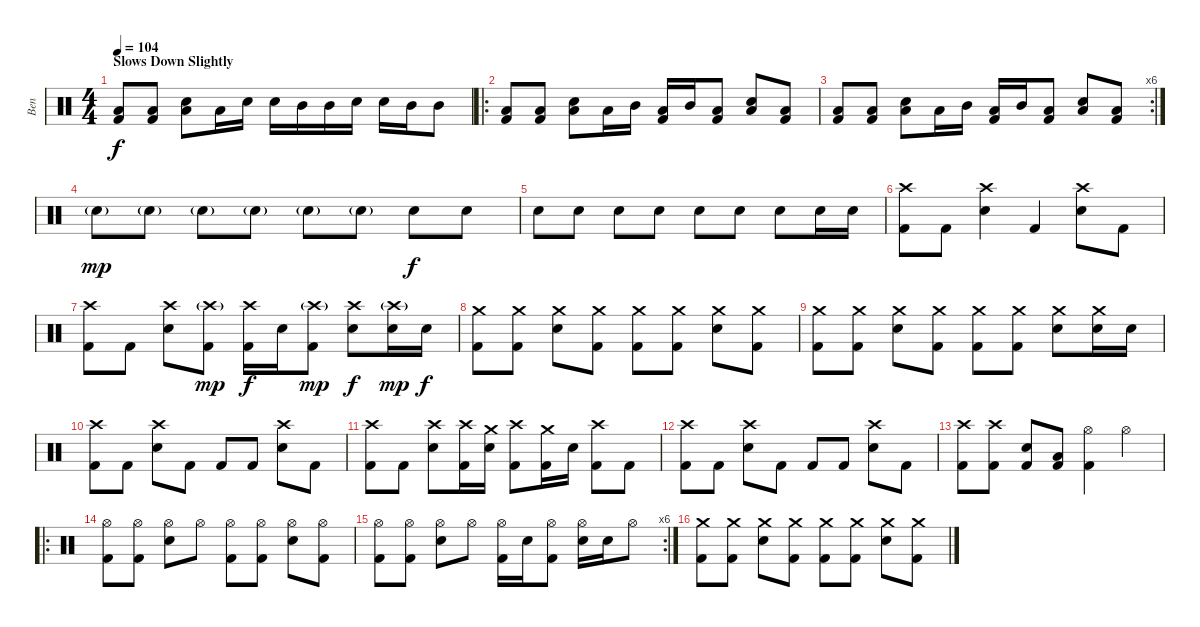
\track ("Ben" "Ben") {instrument percussion}
\staff {score}
\articulation defaults
\ts (4 4)
\section ("" "Slows Down Slightly")
\tempo 104
\clef neutral
\ks c
("Low Floor Tom (hit)" "Kick (hit) 2").8{dy f} ("Low Floor Tom (hit)" "Kick (hit) 2").8 ("Snare (hit) 2" "Low Floor Tom (hit)").8 "Low Floor Tom (hit)".16 "Snare (hit) 2".16 "Snare (hit) 2".16 "Mid Tom (hit)".16 "Mid Tom (hit)".16 "Snare (hit) 2".16 "Snare (hit) 2".16 "Mid Tom (hit)".16 "Mid Tom (hit)".8 |
\ro
("Low Floor Tom (hit)" "Kick (hit) 2").8 ("Low Floor Tom (hit)" "Kick (hit) 2").8 ("Snare (hit) 2" "Low Floor Tom (hit)").8 "Low Floor Tom (hit)".16 "Mid Tom (hit)".16 ("Low Floor Tom (hit)" "Kick (hit) 2").16 "Mid Tom (hit)".16 ("Low Floor Tom (hit)" "Kick (hit) 2").8 ("Snare (hit) 2" "Low Floor Tom (hit)").8 ("Low Floor Tom (hit)" "Kick (hit) 2").8 |
\rc 6
("Low Floor Tom (hit)" "Kick (hit) 2").8 ("Low Floor Tom (hit)" "Kick (hit) 2").8 ("Snare (hit) 2" "Low Floor Tom (hit)").8 "Low Floor Tom (hit)".16 "Mid Tom (hit)".16 ("Low Floor Tom (hit)" "Kick (hit) 2").16 "Mid Tom (hit)".16 ("Low Floor Tom (hit)" "Kick (hit) 2").8 ("Snare (hit) 2" "Low Floor Tom (hit)").8 ("Low Floor Tom (hit)" "Kick (hit) 2").8 |
"Snare (hit) 2"{g}.8{dy mp} "Snare (hit) 2"{g}.8 "Snare (hit) 2"{g}.8 "Snare (hit) 2"{g}.8 "Snare (hit) 2"{g}.8 "Snare (hit) 2"{g}.8 "Snare (hit) 2".8{dy f} "Snare (hit) 2".8 |
"Snare (hit) 2".8 "Snare (hit) 2".8 "Snare (hit) 2".8 "Snare (hit) 2".8 "Snare (hit) 2".8 "Snare (hit) 2".8 "Snare (hit) 2".8 "Snare (hit) 2".16 "Snare (hit) 2".16 |
("Crash high (hit)" "Kick (hit) 2").8 "Kick (hit) 2".8 ("Snare (hit) 2" "Crash high (hit)").4 "Kick (hit) 2".4 ("Snare (hit) 2" "Crash high (hit)").8 "Kick (hit) 2".8 |
("Crash high (hit)" "Kick (hit) 2").8 "Kick (hit) 2".8 ("Snare (hit) 2" "Crash high (hit)").8 ("Crash high (hit)"{g} "Kick (hit) 2").8{dy mp} ("Crash high (hit)" "Kick (hit) 2").16{dy f} "Snare (hit) 2".16 ("Crash high (hit)"{g} "Kick (hit) 2").8{dy mp} ("Snare (hit) 2" "Crash high (hit)").8{dy f} ("Snare (hit) 2" "Crash high (hit)"{g}).16{dy mp} "Snare (hit) 2".16{dy f} |
("Crash medium (hit)" "Kick (hit) 2").8 ("Crash medium (hit)" "Kick (hit) 2").8 ("Snare (hit) 2" "Crash medium (hit)").8 ("Crash medium (hit)" "Kick (hit) 2").8 ("Crash medium (hit)" "Kick (hit) 2").8 ("Crash medium (hit)" "Kick (hit) 2").8 ("Snare (hit) 2" "Crash medium (hit)").8 ("Crash medium (hit)" "Kick (hit) 2").8 |
("Crash medium (hit)" "Kick (hit) 2").8 ("Crash medium (hit)" "Kick (hit) 2").8 ("Snare (hit) 2" "Crash medium (hit)").8 ("Crash medium (hit)" "Kick (hit) 2").8 ("Crash medium (hit)" "Kick (hit) 2").8 ("Crash medium (hit)" "Kick (hit) 2").8 ("Snare (hit) 2" "Crash medium (hit)").8 ("Snare (hit) 2" "Crash medium (hit)").16 "Snare (hit) 2".16 |
("Crash high (hit)" "Kick (hit) 2").8 "Kick (hit) 2".8 ("Snare (hit) 2" "Crash high (hit)").8 "Kick (hit) 2".8 "Kick (hit) 2".8 "Kick (hit) 2".8 ("Snare (hit) 2" "Crash high (hit)").8 "Kick (hit) 2".8 |
("Crash high (hit)" "Kick (hit) 2").8 "Kick (hit) 2".8 ("Snare (hit) 2" "Crash high (hit)").8 ("Crash high (hit)" "Kick (hit) 2").16 ("Snare (hit) 2" "Crash medium (hit)").16 ("Crash high (hit)" "Kick (hit) 2").8 ("Crash medium (hit)" "Kick (hit) 2").16 "Snare (hit) 2".16 ("Crash high (hit)" "Kick (hit) 2").8 "Kick (hit) 2".8 |
("Crash high (hit)" "Kick (hit) 2").8 "Kick (hit) 2".8 ("Snare (hit) 2" "Crash high (hit)").8 "Kick (hit) 2".8 "Kick (hit) 2".8 "Kick (hit) 2".8 ("Snare (hit) 2" "Crash high (hit)").8 "Kick (hit) 2".8 |
("Crash high (hit)" "Kick (hit) 2").8 ("Crash high (hit)" "Kick (hit) 2").8 ("Snare (hit) 2" "Kick (hit) 2").8 ("Low Floor Tom (hit)" "Kick (hit) 2").8 ("Hi-Hat (open)" "Kick (hit) 2").4 "Hi-Hat (open)".4 |
\ro
("Hi-Hat (open)" "Kick (hit) 2").8 ("Hi-Hat (open)" "Kick (hit) 2").8 ("Snare (hit) 2" "Hi-Hat (open)").8 "Hi-Hat (open)".8 ("Hi-Hat (open)" "Kick (hit) 2").8 ("Hi-Hat (open)" "Kick (hit) 2").8 ("Snare (hit) 2" "Hi-Hat (open)").8 ("Hi-Hat (open)" "Kick (hit) 2").8 |
\rc 6
("Hi-Hat (open)" "Kick (hit) 2").8 ("Hi-Hat (open)" "Kick (hit) 2").8 ("Snare (hit) 2" "Hi-Hat (open)").8 "Hi-Hat (open)".8 ("Hi-Hat (open)" "Kick (hit) 2").16 "Snare (hit) 2".16 ("Hi-Hat (open)" "Kick (hit) 2").8 ("Snare (hit) 2" "Hi-Hat (open)").16 "Snare (hit) 2".16 "Hi-Hat (open)".8 |
("Crash medium (hit)" "Kick (hit) 2").8 ("Crash medium (hit)" "Kick (hit) 2").8 ("Snare (hit) 2" "Crash medium (hit)").8 ("Crash medium (hit)" "Kick (hit) 2").8 ("Crash medium (hit)" "Kick (hit) 2").8 ("Crash medium (hit)" "Kick (hit) 2").8 ("Snare (hit) 2" "Crash medium (hit)").8 ("Crash medium (hit)" "Kick (hit) 2").8
